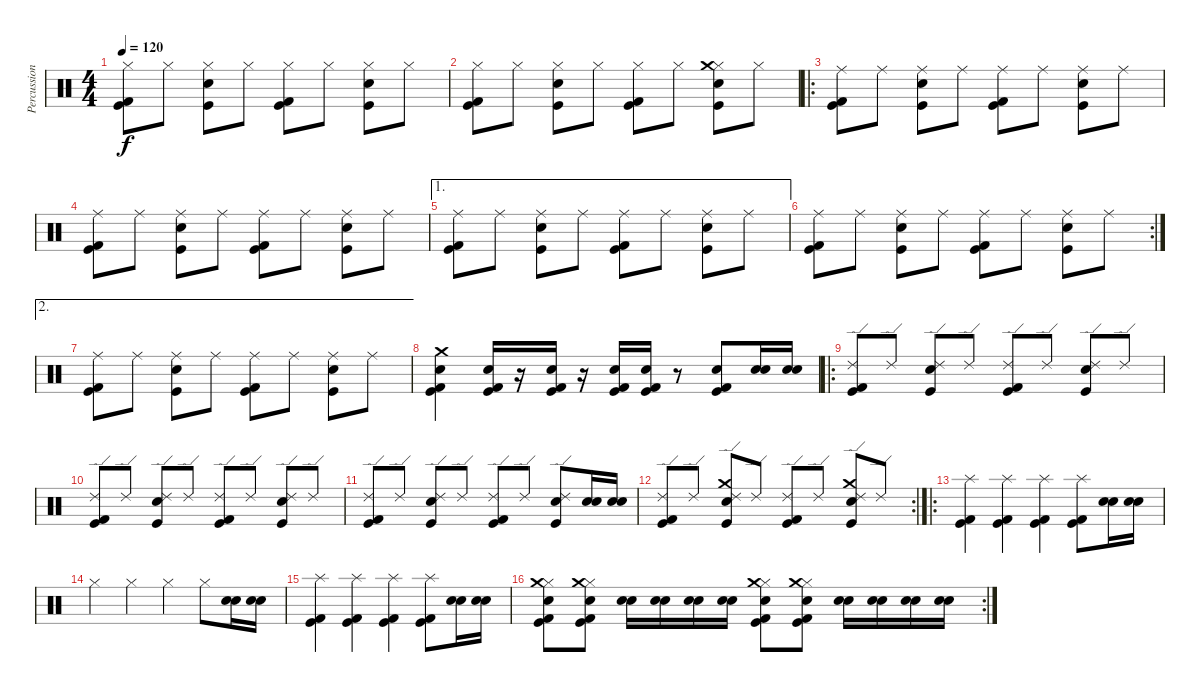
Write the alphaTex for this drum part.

\track ("Percussion" "Percussion") {instrument percussion}
\staff {score}
\articulation defaults
\ts (4 4)
\tempo 120
\clef neutral
\ks c
("Hi-Hat (closed)" "Kick (hit)" "Kick (hit) 2").8{dy f} "Hi-Hat (closed)".8 ("Hi-Hat (closed)" "Kick (hit)" "Snare (hit) 2").8 "Hi-Hat (closed)".8 ("Hi-Hat (closed)" "Kick (hit)" "Kick (hit) 2").8 "Hi-Hat (closed)".8 ("Hi-Hat (closed)" "Kick (hit)" "Snare (hit) 2").8 "Hi-Hat (closed)".8 |
("Hi-Hat (closed)" "Kick (hit)" "Kick (hit) 2").8 "Hi-Hat (closed)".8 ("Hi-Hat (closed)" "Kick (hit)" "Snare (hit) 2").8 "Hi-Hat (closed)".8 ("Hi-Hat (closed)" "Kick (hit)" "Kick (hit) 2").8 "Hi-Hat (closed)".8 ("Hi-Hat (closed)" "Kick (hit)" "Snare (hit) 2" "Crash medium (hit)").8 "Hi-Hat (closed)".8 |
\ro
("Ride (middle)" "Kick (hit)" "Kick (hit) 2").8 "Ride (middle)".8 ("Ride (middle)" "Kick (hit)" "Snare (hit) 2").8 "Ride (middle)".8 ("Ride (middle)" "Kick (hit)" "Kick (hit) 2").8 "Ride (middle)".8 ("Ride (middle)" "Kick (hit)" "Snare (hit) 2").8 "Ride (middle)".8 |
("Ride (middle)" "Kick (hit)" "Kick (hit) 2").8 "Ride (middle)".8 ("Ride (middle)" "Kick (hit)" "Snare (hit) 2").8 "Ride (middle)".8 ("Ride (middle)" "Kick (hit)" "Kick (hit) 2").8 "Ride (middle)".8 ("Ride (middle)" "Kick (hit)" "Snare (hit) 2").8 "Ride (middle)".8 |
\ae 1
("Ride (middle)" "Kick (hit)" "Kick (hit) 2").8 "Ride (middle)".8 ("Ride (middle)" "Kick (hit)" "Snare (hit) 2").8 "Ride (middle)".8 ("Ride (middle)" "Kick (hit)" "Kick (hit) 2").8 "Ride (middle)".8 ("Ride (middle)" "Kick (hit)" "Snare (hit) 2").8 "Ride (middle)".8 |
\rc 2
("Ride (middle)" "Kick (hit)" "Kick (hit) 2").8 "Ride (middle)".8 ("Ride (middle)" "Kick (hit)" "Snare (hit) 2").8 "Ride (middle)".8 ("Ride (middle)" "Kick (hit)" "Kick (hit) 2").8 "Ride (middle)".8 ("Ride (middle)" "Kick (hit)" "Snare (hit) 2").8 "Ride (middle)".8 |
\ae 2
("Ride (middle)" "Kick (hit)" "Kick (hit) 2").8 "Ride (middle)".8 ("Ride (middle)" "Kick (hit)" "Snare (hit) 2").8 "Ride (middle)".8 ("Ride (middle)" "Kick (hit)" "Kick (hit) 2").8 "Ride (middle)".8 ("Ride (middle)" "Kick (hit)" "Snare (hit) 2").8 "Ride (middle)".8 |
("Kick (hit)" "Kick (hit) 2" "Snare (hit) 2" "Crash medium (hit)").4 ("Kick (hit)" "Kick (hit) 2" "Electric Snare (hit)").16 r.16 ("Kick (hit)" "Kick (hit) 2" "Electric Snare (hit)").16 r.16 ("Kick (hit)" "Kick (hit) 2" "Electric Snare (hit)").16 ("Kick (hit)" "Kick (hit) 2" "Electric Snare (hit)").16 r.8 ("Kick (hit)" "Kick (hit) 2" "Snare (hit) 2").8 ("Snare (hit) 2" "Electric Snare (hit)").16 ("Snare (hit) 2" "Electric Snare (hit)").16 |
\ro
("Ride (edge) 2" "Kick (hit)" "Kick (hit) 2").8 "Ride (edge) 2".8 ("Ride (edge) 2" "Kick (hit)" "Snare (hit) 2").8 "Ride (edge) 2".8 ("Ride (edge) 2" "Kick (hit)" "Kick (hit) 2").8 "Ride (edge) 2".8 ("Ride (edge) 2" "Kick (hit)" "Snare (hit) 2").8 "Ride (edge) 2".8 |
("Ride (edge) 2" "Kick (hit)" "Kick (hit) 2").8 "Ride (edge) 2".8 ("Ride (edge) 2" "Kick (hit)" "Snare (hit) 2").8 "Ride (edge) 2".8 ("Ride (edge) 2" "Kick (hit)" "Kick (hit) 2").8 "Ride (edge) 2".8 ("Ride (edge) 2" "Kick (hit)" "Snare (hit) 2").8 "Ride (edge) 2".8 |
("Ride (edge) 2" "Kick (hit)" "Kick (hit) 2").8 "Ride (edge) 2".8 ("Ride (edge) 2" "Kick (hit)" "Snare (hit) 2").8 "Ride (edge) 2".8 ("Ride (edge) 2" "Kick (hit)" "Kick (hit) 2").8 "Ride (edge) 2".8 ("Ride (edge) 2" "Kick (hit)" "Snare (hit) 2").8 ("Snare (hit) 2" "Electric Snare (hit)").16 ("Snare (hit) 2" "Electric Snare (hit)").16 |
\rc 2
("Ride (edge) 2" "Kick (hit)" "Kick (hit) 2").8 "Ride (edge) 2".8 ("Ride (edge) 2" "Kick (hit)" "Snare (hit) 2" "Crash medium (hit)").8 "Ride (edge) 2".8 ("Ride (edge) 2" "Kick (hit)" "Kick (hit) 2").8 "Ride (edge) 2".8 ("Ride (edge) 2" "Kick (hit)" "Snare (hit) 2" "Crash medium (hit)").8 "Ride (edge) 2".8 |
\ro
("Splash (hit)" "Kick (hit)" "Kick (hit) 2").4 ("Splash (hit)" "Kick (hit)" "Kick (hit) 2").4 ("Splash (hit)" "Kick (hit)" "Kick (hit) 2").4 ("Splash (hit)" "Kick (hit)" "Kick (hit) 2").8 ("Snare (hit) 2" "Electric Snare (hit)").16 ("Snare (hit) 2" "Electric Snare (hit)").16 |
"Hi-Hat (closed)".4 "Hi-Hat (closed)".4 "Hi-Hat (closed)".4 "Hi-Hat (closed)".8 ("Snare (hit) 2" "Electric Snare (hit)").16 ("Snare (hit) 2" "Electric Snare (hit)").16 |
("Splash (hit)" "Kick (hit)" "Kick (hit) 2").4 ("Splash (hit)" "Kick (hit)" "Kick (hit) 2").4 ("Splash (hit)" "Kick (hit)" "Kick (hit) 2").4 ("Splash (hit)" "Kick (hit)" "Kick (hit) 2").8 ("Snare (hit) 2" "Electric Snare (hit)").16 ("Snare (hit) 2" "Electric Snare (hit)").16 |
\rc 2
("Hi-Hat (closed)" "Kick (hit)" "Kick (hit) 2" "Snare (hit) 2" "Crash medium (hit)").8 ("Hi-Hat (closed)" "Kick (hit)" "Kick (hit) 2" "Snare (hit) 2" "Crash medium (hit)").8 ("Snare (hit) 2" "Electric Snare (hit)").16 ("Snare (hit) 2" "Electric Snare (hit)").16 ("Snare (hit) 2" "Electric Snare (hit)").16 ("Snare (hit) 2" "Electric Snare (hit)").16 ("Hi-Hat (closed)" "Kick (hit)" "Kick (hit) 2" "Snare (hit) 2" "Crash medium (hit)").8 ("Hi-Hat (closed)" "Kick (hit)" "Kick (hit) 2" "Snare (hit) 2" "Crash medium (hit)").8 ("Snare (hit) 2" "Electric Snare (hit)").16 ("Snare (hit) 2" "Electric Snare (hit)").16 ("Snare (hit) 2" "Electric Snare (hit)").16 ("Snare (hit) 2" "Electric Snare (hit)").16
